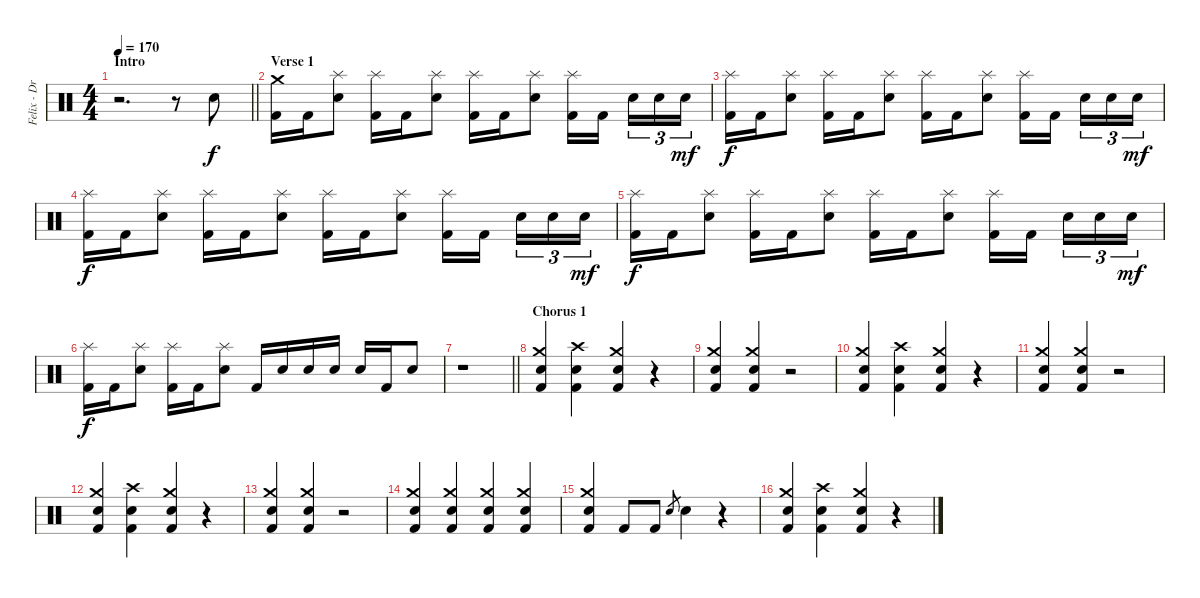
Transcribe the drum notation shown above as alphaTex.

\track ("Felix - Drums" "Felix - Dr") {instrument percussion}
\staff {score}
\articulation defaults
\ts (4 4)
\section ("" "Intro")
\tempo 170
\clef neutral
\barLineRight lightlight
\ks c
r.2{d dy f} r.8 "Electric Snare (hit)".8 |
\section ("" "Verse 1")
("Crash medium (hit)" "Kick (hit) 2").16 "Kick (hit) 2".16 ("Splash (hit)" "Electric Snare (hit)").8 ("Splash (hit)" "Kick (hit) 2").16 "Kick (hit) 2".16 ("Splash (hit)" "Electric Snare (hit)").8 ("Splash (hit)" "Kick (hit) 2").16 "Kick (hit) 2".16 ("Splash (hit)" "Electric Snare (hit)").8 ("Splash (hit)" "Kick (hit) 2").16 "Kick (hit) 2".16 "Electric Snare (hit)".16{tu (3 2)} "Electric Snare (hit)".16{tu (3 2)} "Electric Snare (hit)".16{tu (3 2) dy mf} |
("Splash (hit)" "Kick (hit) 2").16{dy f} "Kick (hit) 2".16 ("Splash (hit)" "Electric Snare (hit)").8 ("Splash (hit)" "Kick (hit) 2").16 "Kick (hit) 2".16 ("Splash (hit)" "Electric Snare (hit)").8 ("Splash (hit)" "Kick (hit) 2").16 "Kick (hit) 2".16 ("Splash (hit)" "Electric Snare (hit)").8 ("Splash (hit)" "Kick (hit) 2").16 "Kick (hit) 2".16 "Electric Snare (hit)".16{tu (3 2)} "Electric Snare (hit)".16{tu (3 2)} "Electric Snare (hit)".16{tu (3 2) dy mf} |
("Splash (hit)" "Kick (hit) 2").16{dy f} "Kick (hit) 2".16 ("Splash (hit)" "Electric Snare (hit)").8 ("Splash (hit)" "Kick (hit) 2").16 "Kick (hit) 2".16 ("Splash (hit)" "Electric Snare (hit)").8 ("Splash (hit)" "Kick (hit) 2").16 "Kick (hit) 2".16 ("Splash (hit)" "Electric Snare (hit)").8 ("Splash (hit)" "Kick (hit) 2").16 "Kick (hit) 2".16 "Electric Snare (hit)".16{tu (3 2)} "Electric Snare (hit)".16{tu (3 2)} "Electric Snare (hit)".16{tu (3 2) dy mf} |
("Splash (hit)" "Kick (hit) 2").16{dy f} "Kick (hit) 2".16 ("Splash (hit)" "Electric Snare (hit)").8 ("Splash (hit)" "Kick (hit) 2").16 "Kick (hit) 2".16 ("Splash (hit)" "Electric Snare (hit)").8 ("Splash (hit)" "Kick (hit) 2").16 "Kick (hit) 2".16 ("Splash (hit)" "Electric Snare (hit)").8 ("Splash (hit)" "Kick (hit) 2").16 "Kick (hit) 2".16 "Electric Snare (hit)".16{tu (3 2)} "Electric Snare (hit)".16{tu (3 2)} "Electric Snare (hit)".16{tu (3 2) dy mf} |
("Splash (hit)" "Kick (hit) 2").16{dy f} "Kick (hit) 2".16 ("Splash (hit)" "Electric Snare (hit)").8 ("Splash (hit)" "Kick (hit) 2").16 "Kick (hit) 2".16 ("Splash (hit)" "Electric Snare (hit)").8 "Kick (hit) 2".16 "Electric Snare (hit)".16 "Electric Snare (hit)".16 "Electric Snare (hit)".16 "Electric Snare (hit)".16 "Kick (hit) 2".16 "Electric Snare (hit)".8 |
\barLineRight lightlight
r.1 |
\section ("" "Chorus 1")
("Crash medium (hit)" "Electric Snare (hit)" "Kick (hit) 2").4 ("Crash high (hit)" "Electric Snare (hit)" "Kick (hit) 2").4 ("Crash medium (hit)" "Electric Snare (hit)" "Kick (hit) 2").4 r.4 |
("Crash medium (hit)" "Electric Snare (hit)" "Kick (hit) 2").4 ("Crash medium (hit)" "Electric Snare (hit)" "Kick (hit) 2").4 r.2 |
("Crash medium (hit)" "Electric Snare (hit)" "Kick (hit) 2").4 ("Crash high (hit)" "Electric Snare (hit)" "Kick (hit) 2").4 ("Crash medium (hit)" "Electric Snare (hit)" "Kick (hit) 2").4 r.4 |
("Crash medium (hit)" "Electric Snare (hit)" "Kick (hit) 2").4 ("Crash medium (hit)" "Electric Snare (hit)" "Kick (hit) 2").4 r.2 |
("Crash medium (hit)" "Electric Snare (hit)" "Kick (hit) 2").4 ("Crash high (hit)" "Electric Snare (hit)" "Kick (hit) 2").4 ("Crash medium (hit)" "Electric Snare (hit)" "Kick (hit) 2").4 r.4 |
("Crash medium (hit)" "Electric Snare (hit)" "Kick (hit) 2").4 ("Crash medium (hit)" "Electric Snare (hit)" "Kick (hit) 2").4 r.2 |
("Crash medium (hit)" "Electric Snare (hit)" "Kick (hit) 2").4 ("Crash medium (hit)" "Electric Snare (hit)" "Kick (hit) 2").4 ("Crash medium (hit)" "Electric Snare (hit)" "Kick (hit) 2").4 ("Crash medium (hit)" "Electric Snare (hit)" "Kick (hit) 2").4 |
("Crash medium (hit)" "Electric Snare (hit)" "Kick (hit) 2").4 "Kick (hit) 2".8 "Kick (hit) 2".8 "Electric Snare (hit)".8{gr} "Electric Snare (hit)".4 r.4 |
("Crash medium (hit)" "Electric Snare (hit)" "Kick (hit) 2").4 ("Crash high (hit)" "Electric Snare (hit)" "Kick (hit) 2").4 ("Crash medium (hit)" "Electric Snare (hit)" "Kick (hit) 2").4 r.4
